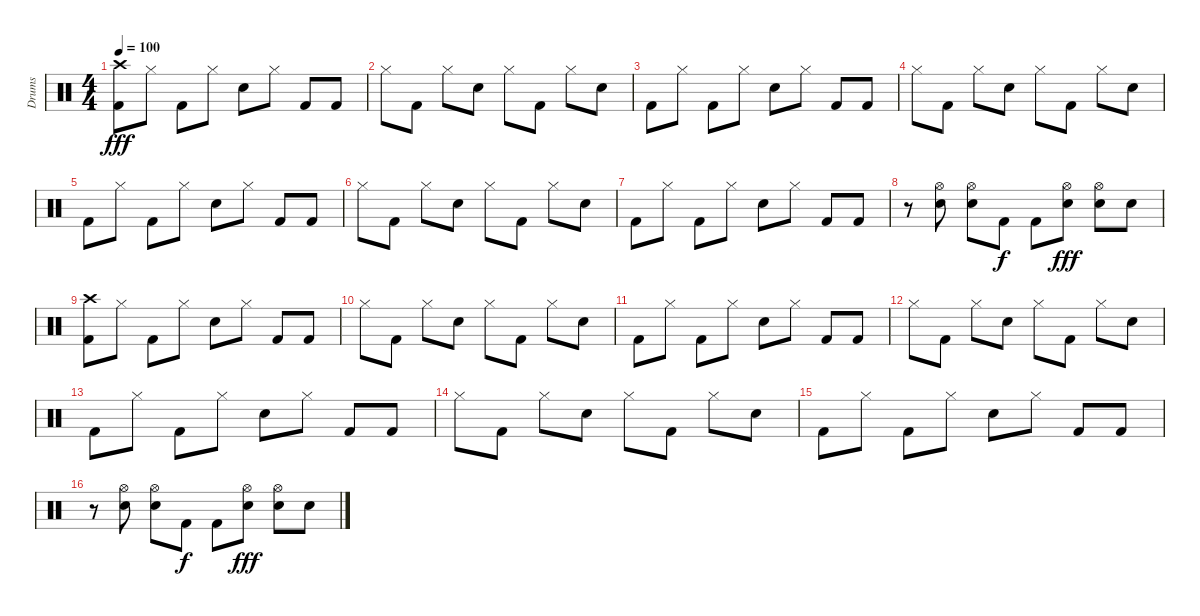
\track ("Drums" "Drums") {instrument percussion}
\staff {score}
\articulation defaults
\ts (4 4)
\section ("" "")
\tempo 100
\clef neutral
\ks c
("Crash high (hit)" "Kick (hit) 2").8{dy fff} "Hi-Hat (closed)".8 "Kick (hit) 2".8 "Hi-Hat (closed)".8 "Electric Snare (hit)".8 "Hi-Hat (closed)".8 "Kick (hit) 2".8 "Kick (hit) 2".8 |
"Hi-Hat (closed)".8 "Kick (hit) 2".8 "Hi-Hat (closed)".8 "Electric Snare (hit)".8 "Hi-Hat (closed)".8 "Kick (hit) 2".8 "Hi-Hat (closed)".8 "Electric Snare (hit)".8 |
"Kick (hit) 2".8 "Hi-Hat (closed)".8 "Kick (hit) 2".8 "Hi-Hat (closed)".8 "Electric Snare (hit)".8 "Hi-Hat (closed)".8 "Kick (hit) 2".8 "Kick (hit) 2".8 |
"Hi-Hat (closed)".8 "Kick (hit) 2".8 "Hi-Hat (closed)".8 "Electric Snare (hit)".8 "Hi-Hat (closed)".8 "Kick (hit) 2".8 "Hi-Hat (closed)".8 "Electric Snare (hit)".8 |
"Kick (hit) 2".8 "Hi-Hat (closed)".8 "Kick (hit) 2".8 "Hi-Hat (closed)".8 "Electric Snare (hit)".8 "Hi-Hat (closed)".8 "Kick (hit) 2".8 "Kick (hit) 2".8 |
"Hi-Hat (closed)".8 "Kick (hit) 2".8 "Hi-Hat (closed)".8 "Electric Snare (hit)".8 "Hi-Hat (closed)".8 "Kick (hit) 2".8 "Hi-Hat (closed)".8 "Electric Snare (hit)".8 |
"Kick (hit) 2".8 "Hi-Hat (closed)".8 "Kick (hit) 2".8 "Hi-Hat (closed)".8 "Electric Snare (hit)".8 "Hi-Hat (closed)".8 "Kick (hit) 2".8 "Kick (hit) 2".8 |
r.8 ("Hi-Hat (open)" "Electric Snare (hit)").8 ("Hi-Hat (open)" "Electric Snare (hit)").8 "Kick (hit) 2".8{dy f} "Kick (hit) 2".8 ("Hi-Hat (open)" "Electric Snare (hit)").8{dy fff} ("Hi-Hat (open)" "Electric Snare (hit)").8 "Electric Snare (hit)".8 |
("Crash high (hit)" "Kick (hit) 2").8 "Hi-Hat (closed)".8 "Kick (hit) 2".8 "Hi-Hat (closed)".8 "Electric Snare (hit)".8 "Hi-Hat (closed)".8 "Kick (hit) 2".8 "Kick (hit) 2".8 |
"Hi-Hat (closed)".8 "Kick (hit) 2".8 "Hi-Hat (closed)".8 "Electric Snare (hit)".8 "Hi-Hat (closed)".8 "Kick (hit) 2".8 "Hi-Hat (closed)".8 "Electric Snare (hit)".8 |
"Kick (hit) 2".8 "Hi-Hat (closed)".8 "Kick (hit) 2".8 "Hi-Hat (closed)".8 "Electric Snare (hit)".8 "Hi-Hat (closed)".8 "Kick (hit) 2".8 "Kick (hit) 2".8 |
"Hi-Hat (closed)".8 "Kick (hit) 2".8 "Hi-Hat (closed)".8 "Electric Snare (hit)".8 "Hi-Hat (closed)".8 "Kick (hit) 2".8 "Hi-Hat (closed)".8 "Electric Snare (hit)".8 |
"Kick (hit) 2".8 "Hi-Hat (closed)".8 "Kick (hit) 2".8 "Hi-Hat (closed)".8 "Electric Snare (hit)".8 "Hi-Hat (closed)".8 "Kick (hit) 2".8 "Kick (hit) 2".8 |
"Hi-Hat (closed)".8 "Kick (hit) 2".8 "Hi-Hat (closed)".8 "Electric Snare (hit)".8 "Hi-Hat (closed)".8 "Kick (hit) 2".8 "Hi-Hat (closed)".8 "Electric Snare (hit)".8 |
"Kick (hit) 2".8 "Hi-Hat (closed)".8 "Kick (hit) 2".8 "Hi-Hat (closed)".8 "Electric Snare (hit)".8 "Hi-Hat (closed)".8 "Kick (hit) 2".8 "Kick (hit) 2".8 |
r.8 ("Hi-Hat (open)" "Electric Snare (hit)").8 ("Hi-Hat (open)" "Electric Snare (hit)").8 "Kick (hit) 2".8{dy f} "Kick (hit) 2".8 ("Hi-Hat (open)" "Electric Snare (hit)").8{dy fff} ("Hi-Hat (open)" "Electric Snare (hit)").8 "Electric Snare (hit)".8
